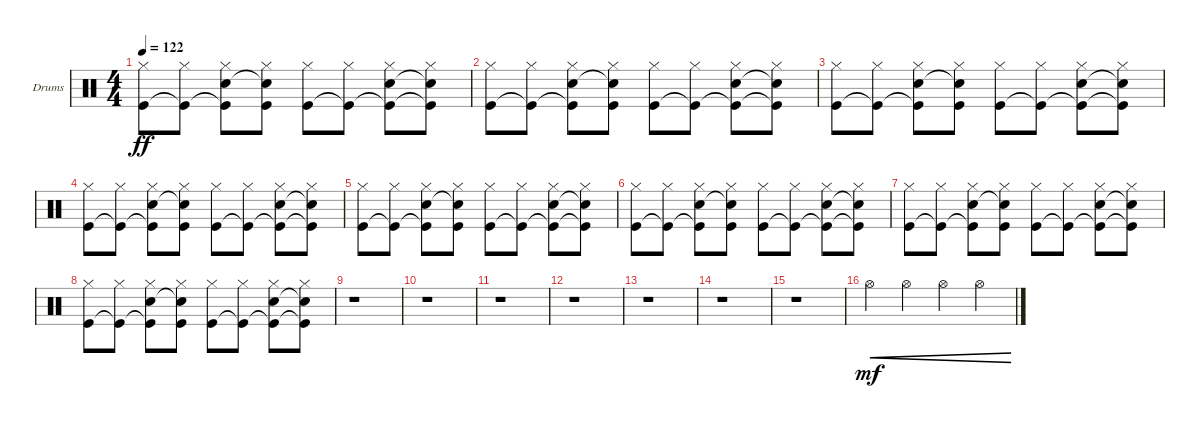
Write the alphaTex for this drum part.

\defaultSystemsLayout 4
\bracketExtendMode groupsimilarinstruments
\firstSystemTrackNameOrientation horizontal
\otherSystemsTrackNameOrientation horizontal
\track ("Drumkit" "Drums") {instrument percussion}
\staff {score}
\articulation defaults
\ts (4 4)
\tempo 122
\clef neutral
\ks c
("Hi-Hat (closed)" "Kick (hit)").8{dy ff} ("Hi-Hat (closed)" "Kick (hit)"{t}).8 ("Hi-Hat (closed)" "Kick (hit)"{t} "Snare (hit) 2").8 ("Hi-Hat (closed)" "Kick (hit)" "Snare (hit) 2"{t}).8 ("Hi-Hat (closed)" "Kick (hit)").8 ("Hi-Hat (closed)" "Kick (hit)"{t}).8 ("Hi-Hat (closed)" "Kick (hit)"{t} "Snare (hit) 2").8 ("Hi-Hat (closed)" "Kick (hit)"{t} "Snare (hit) 2"{t}).8 |
("Hi-Hat (closed)" "Kick (hit)").8 ("Hi-Hat (closed)" "Kick (hit)"{t}).8 ("Hi-Hat (closed)" "Kick (hit)"{t} "Snare (hit) 2").8 ("Hi-Hat (closed)" "Kick (hit)" "Snare (hit) 2"{t}).8 ("Hi-Hat (closed)" "Kick (hit)").8 ("Hi-Hat (closed)" "Kick (hit)"{t}).8 ("Hi-Hat (closed)" "Kick (hit)"{t} "Snare (hit) 2").8 ("Hi-Hat (closed)" "Kick (hit)"{t} "Snare (hit) 2"{t}).8 |
("Hi-Hat (closed)" "Kick (hit)").8 ("Hi-Hat (closed)" "Kick (hit)"{t}).8 ("Hi-Hat (closed)" "Kick (hit)"{t} "Snare (hit) 2").8 ("Hi-Hat (closed)" "Kick (hit)" "Snare (hit) 2"{t}).8 ("Hi-Hat (closed)" "Kick (hit)").8 ("Hi-Hat (closed)" "Kick (hit)"{t}).8 ("Hi-Hat (closed)" "Kick (hit)"{t} "Snare (hit) 2").8 ("Hi-Hat (closed)" "Kick (hit)"{t} "Snare (hit) 2"{t}).8 |
("Hi-Hat (closed)" "Kick (hit)").8 ("Hi-Hat (closed)" "Kick (hit)"{t}).8 ("Hi-Hat (closed)" "Kick (hit)"{t} "Snare (hit) 2").8 ("Hi-Hat (closed)" "Kick (hit)" "Snare (hit) 2"{t}).8 ("Hi-Hat (closed)" "Kick (hit)").8 ("Hi-Hat (closed)" "Kick (hit)"{t}).8 ("Hi-Hat (closed)" "Kick (hit)"{t} "Snare (hit) 2").8 ("Hi-Hat (closed)" "Kick (hit)"{t} "Snare (hit) 2"{t}).8 |
("Hi-Hat (closed)" "Kick (hit)").8 ("Hi-Hat (closed)" "Kick (hit)"{t}).8 ("Hi-Hat (closed)" "Kick (hit)"{t} "Snare (hit) 2").8 ("Hi-Hat (closed)" "Kick (hit)" "Snare (hit) 2"{t}).8 ("Hi-Hat (closed)" "Kick (hit)").8 ("Hi-Hat (closed)" "Kick (hit)"{t}).8 ("Hi-Hat (closed)" "Kick (hit)"{t} "Snare (hit) 2").8 ("Hi-Hat (closed)" "Kick (hit)"{t} "Snare (hit) 2"{t}).8 |
("Hi-Hat (closed)" "Kick (hit)").8 ("Hi-Hat (closed)" "Kick (hit)"{t}).8 ("Hi-Hat (closed)" "Kick (hit)"{t} "Snare (hit) 2").8 ("Hi-Hat (closed)" "Kick (hit)" "Snare (hit) 2"{t}).8 ("Hi-Hat (closed)" "Kick (hit)").8 ("Hi-Hat (closed)" "Kick (hit)"{t}).8 ("Hi-Hat (closed)" "Kick (hit)"{t} "Snare (hit) 2").8 ("Hi-Hat (closed)" "Kick (hit)"{t} "Snare (hit) 2"{t}).8 |
("Hi-Hat (closed)" "Kick (hit)").8 ("Hi-Hat (closed)" "Kick (hit)"{t}).8 ("Hi-Hat (closed)" "Kick (hit)"{t} "Snare (hit) 2").8 ("Hi-Hat (closed)" "Kick (hit)" "Snare (hit) 2"{t}).8 ("Hi-Hat (closed)" "Kick (hit)").8 ("Hi-Hat (closed)" "Kick (hit)"{t}).8 ("Hi-Hat (closed)" "Kick (hit)"{t} "Snare (hit) 2").8 ("Hi-Hat (closed)" "Kick (hit)"{t} "Snare (hit) 2"{t}).8 |
("Hi-Hat (closed)" "Kick (hit)").8 ("Hi-Hat (closed)" "Kick (hit)"{t}).8 ("Hi-Hat (closed)" "Kick (hit)"{t} "Snare (hit) 2").8 ("Hi-Hat (closed)" "Kick (hit)" "Snare (hit) 2"{t}).8 ("Hi-Hat (closed)" "Kick (hit)").8 ("Hi-Hat (closed)" "Kick (hit)"{t}).8 ("Hi-Hat (closed)" "Kick (hit)"{t} "Snare (hit) 2").8 ("Hi-Hat (closed)" "Kick (hit)"{t} "Snare (hit) 2"{t}).8 |
r.1 |
r.1 |
r.1 |
r.1 |
r.1 |
r.1 |
r.1 |
"Hi-Hat (open)".4{cre dy mf} "Hi-Hat (open)".4{cre} "Hi-Hat (open)".4{cre} "Hi-Hat (open)".4{cre}
